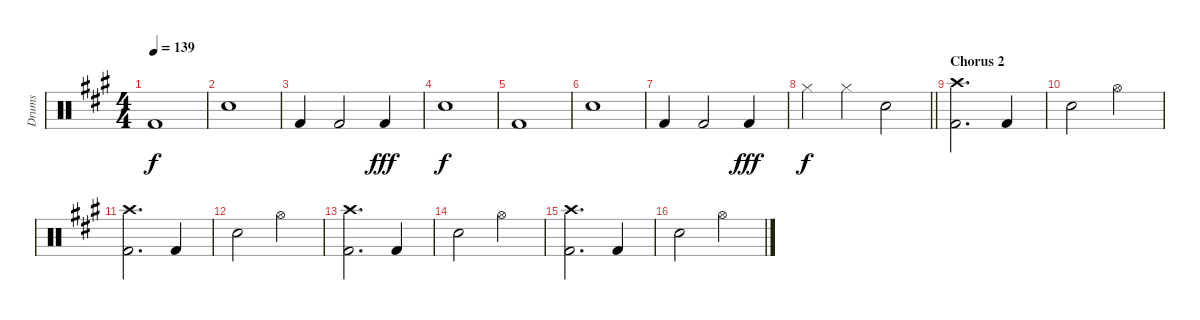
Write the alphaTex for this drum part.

\track ("Drums" "Drums") {instrument percussion}
\staff {score}
\articulation defaults
\ts (4 4)
\tempo 139
\clef neutral
\ks a "Kick (hit) 2".1{dy f}
|
"Electric Snare (hit)".1 |
"Kick (hit) 2".4 "Kick (hit) 2".2 "Kick (hit) 2".4{dy fff} |
"Electric Snare (hit)".1{dy f} |
"Kick (hit) 2".1 |
"Electric Snare (hit)".1 |
"Kick (hit) 2".4 "Kick (hit) 2".2 "Kick (hit) 2".4{dy fff} |
\barLineRight lightlight "Hi-Hat (closed)".4{dy f} "Hi-Hat (closed)".4 "Electric Snare (hit)".2
|
\section ("" "Chorus 2")
("Crash high (hit)" "Kick (hit) 2").2{d} "Kick (hit) 2".4 |
"Snare (hit) 2".2 "Hi-Hat (open)".2 |
("Crash high (hit)" "Kick (hit) 2").2{d} "Kick (hit) 2".4 |
"Snare (hit) 2".2 "Hi-Hat (open)".2 |
("Crash high (hit)" "Kick (hit) 2").2{d} "Kick (hit) 2".4 |
"Snare (hit) 2".2 "Hi-Hat (open)".2 |
("Crash high (hit)" "Kick (hit) 2").2{d} "Kick (hit) 2".4 |
"Snare (hit) 2".2 "Hi-Hat (open)".2
